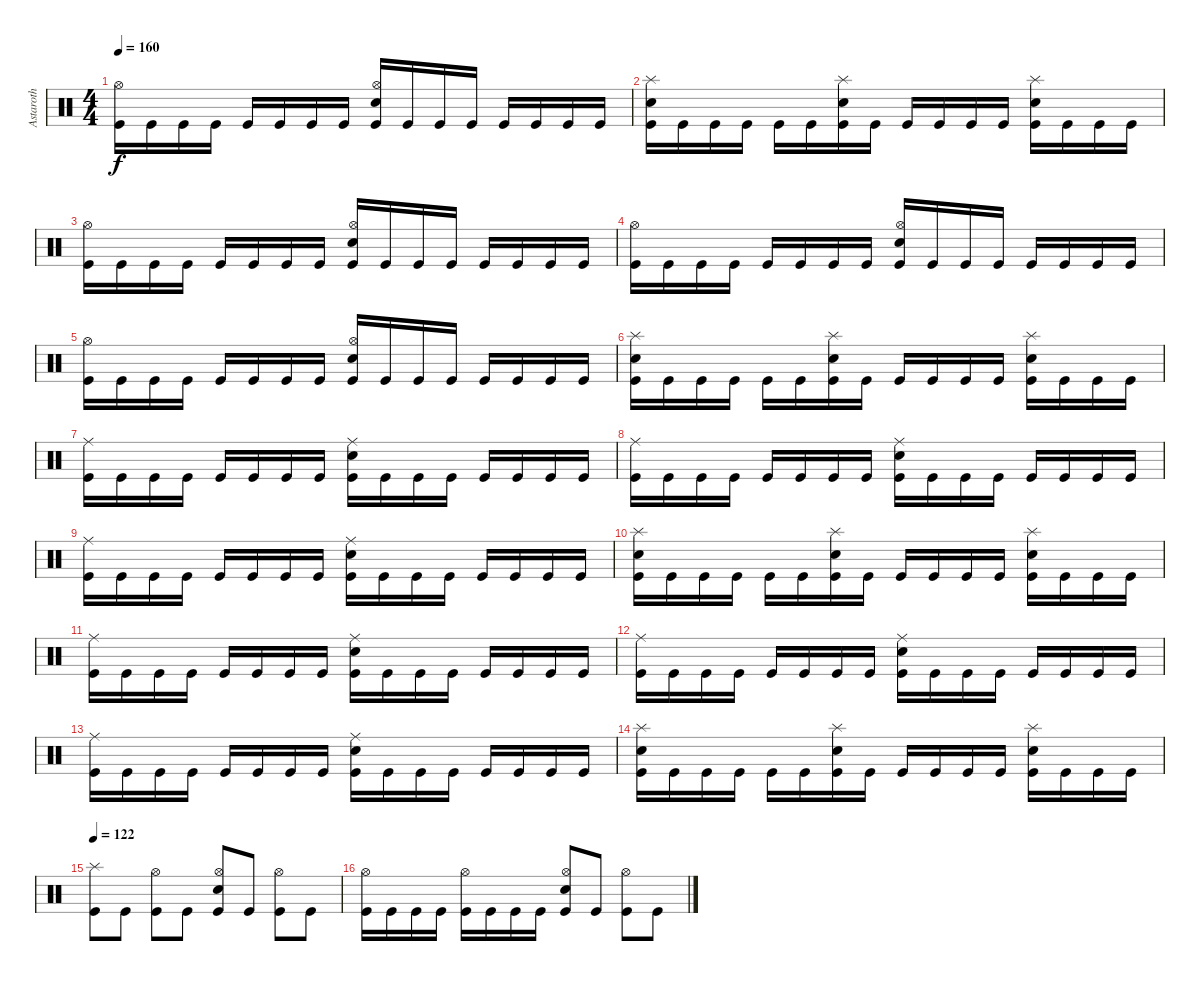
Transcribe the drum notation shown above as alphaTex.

\track ("Astaroth" "Astaroth") {instrument percussion}
\staff {score}
\articulation defaults
\ts (4 4)
\tempo 160
\clef neutral
\ks c
("Kick (hit)" "Hi-Hat (open)").16{dy f} "Kick (hit)".16 "Kick (hit)".16 "Kick (hit)".16 "Kick (hit)".16 "Kick (hit)".16 "Kick (hit)".16 "Kick (hit)".16 ("Kick (hit)" "Hi-Hat (open)" "Electric Snare (hit)").16 "Kick (hit)".16 "Kick (hit)".16 "Kick (hit)".16 "Kick (hit)".16 "Kick (hit)".16 "Kick (hit)".16 "Kick (hit)".16 |
("Kick (hit)" "Splash (hit)" "Electric Snare (hit)").16 "Kick (hit)".16 "Kick (hit)".16 "Kick (hit)".16 "Kick (hit)".16 "Kick (hit)".16 ("Kick (hit)" "Splash (hit)" "Electric Snare (hit)").16 "Kick (hit)".16 "Kick (hit)".16 "Kick (hit)".16 "Kick (hit)".16 "Kick (hit)".16 ("Kick (hit)" "Splash (hit)" "Electric Snare (hit)").16 "Kick (hit)".16 "Kick (hit)".16 "Kick (hit)".16 |
("Kick (hit)" "Hi-Hat (open)").16 "Kick (hit)".16 "Kick (hit)".16 "Kick (hit)".16 "Kick (hit)".16 "Kick (hit)".16 "Kick (hit)".16 "Kick (hit)".16 ("Kick (hit)" "Hi-Hat (open)" "Electric Snare (hit)").16 "Kick (hit)".16 "Kick (hit)".16 "Kick (hit)".16 "Kick (hit)".16 "Kick (hit)".16 "Kick (hit)".16 "Kick (hit)".16 |
("Kick (hit)" "Hi-Hat (open)").16 "Kick (hit)".16 "Kick (hit)".16 "Kick (hit)".16 "Kick (hit)".16 "Kick (hit)".16 "Kick (hit)".16 "Kick (hit)".16 ("Kick (hit)" "Hi-Hat (open)" "Electric Snare (hit)").16 "Kick (hit)".16 "Kick (hit)".16 "Kick (hit)".16 "Kick (hit)".16 "Kick (hit)".16 "Kick (hit)".16 "Kick (hit)".16 |
("Kick (hit)" "Hi-Hat (open)").16 "Kick (hit)".16 "Kick (hit)".16 "Kick (hit)".16 "Kick (hit)".16 "Kick (hit)".16 "Kick (hit)".16 "Kick (hit)".16 ("Kick (hit)" "Hi-Hat (open)" "Electric Snare (hit)").16 "Kick (hit)".16 "Kick (hit)".16 "Kick (hit)".16 "Kick (hit)".16 "Kick (hit)".16 "Kick (hit)".16 "Kick (hit)".16 |
("Kick (hit)" "Splash (hit)" "Electric Snare (hit)").16 "Kick (hit)".16 "Kick (hit)".16 "Kick (hit)".16 "Kick (hit)".16 "Kick (hit)".16 ("Kick (hit)" "Splash (hit)" "Electric Snare (hit)").16 "Kick (hit)".16 "Kick (hit)".16 "Kick (hit)".16 "Kick (hit)".16 "Kick (hit)".16 ("Kick (hit)" "Splash (hit)" "Electric Snare (hit)").16 "Kick (hit)".16 "Kick (hit)".16 "Kick (hit)".16 |
("Kick (hit)" "Ride (middle)").16 "Kick (hit)".16 "Kick (hit)".16 "Kick (hit)".16 "Kick (hit)".16 "Kick (hit)".16 "Kick (hit)".16 "Kick (hit)".16 ("Kick (hit)" "Ride (middle)" "Electric Snare (hit)").16 "Kick (hit)".16 "Kick (hit)".16 "Kick (hit)".16 "Kick (hit)".16 "Kick (hit)".16 "Kick (hit)".16 "Kick (hit)".16 |
("Kick (hit)" "Ride (middle)").16 "Kick (hit)".16 "Kick (hit)".16 "Kick (hit)".16 "Kick (hit)".16 "Kick (hit)".16 "Kick (hit)".16 "Kick (hit)".16 ("Kick (hit)" "Ride (middle)" "Electric Snare (hit)").16 "Kick (hit)".16 "Kick (hit)".16 "Kick (hit)".16 "Kick (hit)".16 "Kick (hit)".16 "Kick (hit)".16 "Kick (hit)".16 |
("Kick (hit)" "Ride (middle)").16 "Kick (hit)".16 "Kick (hit)".16 "Kick (hit)".16 "Kick (hit)".16 "Kick (hit)".16 "Kick (hit)".16 "Kick (hit)".16 ("Kick (hit)" "Ride (middle)" "Electric Snare (hit)").16 "Kick (hit)".16 "Kick (hit)".16 "Kick (hit)".16 "Kick (hit)".16 "Kick (hit)".16 "Kick (hit)".16 "Kick (hit)".16 |
("Kick (hit)" "Splash (hit)" "Electric Snare (hit)").16 "Kick (hit)".16 "Kick (hit)".16 "Kick (hit)".16 "Kick (hit)".16 "Kick (hit)".16 ("Kick (hit)" "Splash (hit)" "Electric Snare (hit)").16 "Kick (hit)".16 "Kick (hit)".16 "Kick (hit)".16 "Kick (hit)".16 "Kick (hit)".16 ("Kick (hit)" "Splash (hit)" "Electric Snare (hit)").16 "Kick (hit)".16 "Kick (hit)".16 "Kick (hit)".16 |
("Kick (hit)" "Ride (middle)").16 "Kick (hit)".16 "Kick (hit)".16 "Kick (hit)".16 "Kick (hit)".16 "Kick (hit)".16 "Kick (hit)".16 "Kick (hit)".16 ("Kick (hit)" "Ride (middle)" "Electric Snare (hit)").16 "Kick (hit)".16 "Kick (hit)".16 "Kick (hit)".16 "Kick (hit)".16 "Kick (hit)".16 "Kick (hit)".16 "Kick (hit)".16 |
("Kick (hit)" "Ride (middle)").16 "Kick (hit)".16 "Kick (hit)".16 "Kick (hit)".16 "Kick (hit)".16 "Kick (hit)".16 "Kick (hit)".16 "Kick (hit)".16 ("Kick (hit)" "Ride (middle)" "Electric Snare (hit)").16 "Kick (hit)".16 "Kick (hit)".16 "Kick (hit)".16 "Kick (hit)".16 "Kick (hit)".16 "Kick (hit)".16 "Kick (hit)".16 |
("Kick (hit)" "Ride (middle)").16 "Kick (hit)".16 "Kick (hit)".16 "Kick (hit)".16 "Kick (hit)".16 "Kick (hit)".16 "Kick (hit)".16 "Kick (hit)".16 ("Kick (hit)" "Ride (middle)" "Electric Snare (hit)").16 "Kick (hit)".16 "Kick (hit)".16 "Kick (hit)".16 "Kick (hit)".16 "Kick (hit)".16 "Kick (hit)".16 "Kick (hit)".16 |
("Kick (hit)" "Splash (hit)" "Electric Snare (hit)").16 "Kick (hit)".16 "Kick (hit)".16 "Kick (hit)".16 "Kick (hit)".16 "Kick (hit)".16 ("Kick (hit)" "Splash (hit)" "Electric Snare (hit)").16 "Kick (hit)".16 "Kick (hit)".16 "Kick (hit)".16 "Kick (hit)".16 "Kick (hit)".16 ("Kick (hit)" "Splash (hit)" "Electric Snare (hit)").16 "Kick (hit)".16 "Kick (hit)".16 "Kick (hit)".16 |
\tempo 122
("Kick (hit)" "Splash (hit)").8{volume 15} "Kick (hit)".8 ("Kick (hit)" "Hi-Hat (open)").8 "Kick (hit)".8 ("Kick (hit)" "Hi-Hat (open)" "Electric Snare (hit)").8 "Kick (hit)".8 ("Kick (hit)" "Hi-Hat (open)").8 "Kick (hit)".8 |
("Kick (hit)" "Hi-Hat (open)").16 "Kick (hit)".16 "Kick (hit)".16 "Kick (hit)".16 ("Kick (hit)" "Hi-Hat (open)").16 "Kick (hit)".16 "Kick (hit)".16 "Kick (hit)".16 ("Kick (hit)" "Hi-Hat (open)" "Electric Snare (hit)").8 "Kick (hit)".8 ("Kick (hit)" "Hi-Hat (open)").8 "Kick (hit)".8
